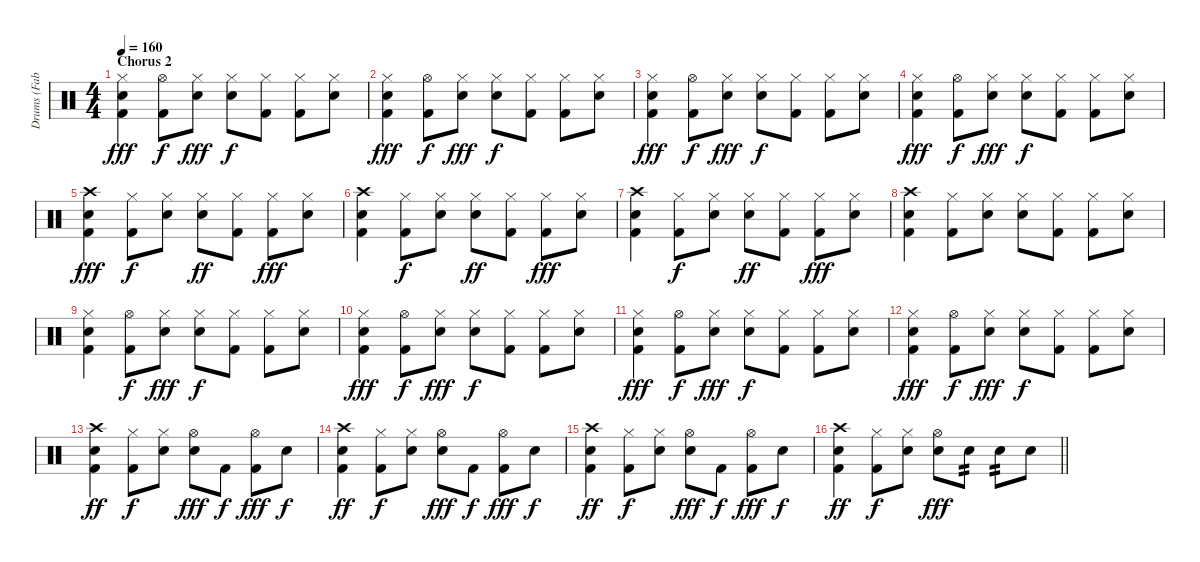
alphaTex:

\track ("Drums (Fabrizio Moretti)" "Drums (Fab") {instrument percussion}
\staff {score}
\articulation defaults
\ts (4 4)
\section ("" "Chorus 2")
\tempo 160
\clef neutral
\ks c
("Kick (hit) 2" "Electric Snare (hit)" "Hi-Hat (closed)").4{dy fff} ("Kick (hit) 2" "Hi-Hat (open)").8{dy f} ("Electric Snare (hit)" "Hi-Hat (closed)").8{dy fff} ("Electric Snare (hit)" "Hi-Hat (closed)").8{dy f} ("Kick (hit) 2" "Hi-Hat (closed)").8 ("Kick (hit) 2" "Hi-Hat (closed)").8 ("Electric Snare (hit)" "Hi-Hat (closed)").8 |
("Kick (hit) 2" "Electric Snare (hit)" "Hi-Hat (closed)").4{dy fff} ("Kick (hit) 2" "Hi-Hat (open)").8{dy f} ("Electric Snare (hit)" "Hi-Hat (closed)").8{dy fff} ("Electric Snare (hit)" "Hi-Hat (closed)").8{dy f} ("Kick (hit) 2" "Hi-Hat (closed)").8 ("Kick (hit) 2" "Hi-Hat (closed)").8 ("Electric Snare (hit)" "Hi-Hat (closed)").8 |
("Kick (hit) 2" "Electric Snare (hit)" "Hi-Hat (closed)").4{dy fff} ("Kick (hit) 2" "Hi-Hat (open)").8{dy f} ("Electric Snare (hit)" "Hi-Hat (closed)").8{dy fff} ("Electric Snare (hit)" "Hi-Hat (closed)").8{dy f} ("Kick (hit) 2" "Hi-Hat (closed)").8 ("Kick (hit) 2" "Hi-Hat (closed)").8 ("Electric Snare (hit)" "Hi-Hat (closed)").8 |
("Kick (hit) 2" "Electric Snare (hit)" "Hi-Hat (closed)").4{dy fff} ("Kick (hit) 2" "Hi-Hat (open)").8{dy f} ("Electric Snare (hit)" "Hi-Hat (closed)").8{dy fff} ("Electric Snare (hit)" "Hi-Hat (closed)").8{dy f} ("Kick (hit) 2" "Hi-Hat (closed)").8 ("Kick (hit) 2" "Hi-Hat (closed)").8 ("Electric Snare (hit)" "Hi-Hat (closed)").8 |
("Kick (hit) 2" "Electric Snare (hit)" "Crash high (hit)").4{dy fff} ("Kick (hit) 2" "Hi-Hat (closed)").8{dy f} ("Electric Snare (hit)" "Hi-Hat (closed)").8 ("Electric Snare (hit)" "Hi-Hat (closed)").8{dy ff} ("Kick (hit) 2" "Hi-Hat (closed)").8 ("Kick (hit) 2" "Hi-Hat (closed)").8{dy fff} ("Electric Snare (hit)" "Hi-Hat (closed)").8 |
("Kick (hit) 2" "Electric Snare (hit)" "Crash high (hit)").4 ("Kick (hit) 2" "Hi-Hat (closed)").8{dy f} ("Electric Snare (hit)" "Hi-Hat (closed)").8 ("Electric Snare (hit)" "Hi-Hat (closed)").8{dy ff} ("Kick (hit) 2" "Hi-Hat (closed)").8 ("Kick (hit) 2" "Hi-Hat (closed)").8{dy fff} ("Electric Snare (hit)" "Hi-Hat (closed)").8 |
("Kick (hit) 2" "Electric Snare (hit)" "Crash high (hit)").4 ("Kick (hit) 2" "Hi-Hat (closed)").8{dy f} ("Electric Snare (hit)" "Hi-Hat (closed)").8 ("Electric Snare (hit)" "Hi-Hat (closed)").8{dy ff} ("Kick (hit) 2" "Hi-Hat (closed)").8 ("Kick (hit) 2" "Hi-Hat (closed)").8{dy fff} ("Electric Snare (hit)" "Hi-Hat (closed)").8 |
("Kick (hit) 2" "Electric Snare (hit)" "Crash high (hit)").4 ("Kick (hit) 2" "Hi-Hat (closed)").8 ("Electric Snare (hit)" "Hi-Hat (closed)").8 ("Electric Snare (hit)" "Hi-Hat (closed)").8 ("Kick (hit) 2" "Hi-Hat (closed)").8 ("Kick (hit) 2" "Hi-Hat (closed)").8 ("Electric Snare (hit)" "Hi-Hat (closed)").8 |
("Kick (hit) 2" "Electric Snare (hit)" "Hi-Hat (closed)").4 ("Kick (hit) 2" "Hi-Hat (open)").8{dy f} ("Electric Snare (hit)" "Hi-Hat (closed)").8{dy fff} ("Electric Snare (hit)" "Hi-Hat (closed)").8{dy f} ("Kick (hit) 2" "Hi-Hat (closed)").8 ("Kick (hit) 2" "Hi-Hat (closed)").8 ("Electric Snare (hit)" "Hi-Hat (closed)").8 |
("Kick (hit) 2" "Electric Snare (hit)" "Hi-Hat (closed)").4{dy fff} ("Kick (hit) 2" "Hi-Hat (open)").8{dy f} ("Electric Snare (hit)" "Hi-Hat (closed)").8{dy fff} ("Electric Snare (hit)" "Hi-Hat (closed)").8{dy f} ("Kick (hit) 2" "Hi-Hat (closed)").8 ("Kick (hit) 2" "Hi-Hat (closed)").8 ("Electric Snare (hit)" "Hi-Hat (closed)").8 |
("Kick (hit) 2" "Electric Snare (hit)" "Hi-Hat (closed)").4{dy fff} ("Kick (hit) 2" "Hi-Hat (open)").8{dy f} ("Electric Snare (hit)" "Hi-Hat (closed)").8{dy fff} ("Electric Snare (hit)" "Hi-Hat (closed)").8{dy f} ("Kick (hit) 2" "Hi-Hat (closed)").8 ("Kick (hit) 2" "Hi-Hat (closed)").8 ("Electric Snare (hit)" "Hi-Hat (closed)").8 |
("Kick (hit) 2" "Electric Snare (hit)" "Hi-Hat (closed)").4{dy fff} ("Kick (hit) 2" "Hi-Hat (open)").8{dy f} ("Electric Snare (hit)" "Hi-Hat (closed)").8{dy fff} ("Electric Snare (hit)" "Hi-Hat (closed)").8{dy f} ("Kick (hit) 2" "Hi-Hat (closed)").8 ("Kick (hit) 2" "Hi-Hat (closed)").8 ("Electric Snare (hit)" "Hi-Hat (closed)").8 |
("Kick (hit) 2" "Electric Snare (hit)" "Crash high (hit)").4{dy ff} ("Kick (hit) 2" "Hi-Hat (closed)").8{dy f} ("Electric Snare (hit)" "Hi-Hat (closed)").8 ("Electric Snare (hit)" "Hi-Hat (open)").8{dy fff} "Kick (hit) 2".8{dy f} ("Kick (hit) 2" "Hi-Hat (open)").8{dy fff} "Electric Snare (hit)".8{dy f} |
("Kick (hit) 2" "Electric Snare (hit)" "Crash high (hit)").4{dy ff} ("Kick (hit) 2" "Hi-Hat (closed)").8{dy f} ("Electric Snare (hit)" "Hi-Hat (closed)").8 ("Electric Snare (hit)" "Hi-Hat (open)").8{dy fff} "Kick (hit) 2".8{dy f} ("Kick (hit) 2" "Hi-Hat (open)").8{dy fff} "Electric Snare (hit)".8{dy f} |
("Kick (hit) 2" "Electric Snare (hit)" "Crash high (hit)").4{dy ff} ("Kick (hit) 2" "Hi-Hat (closed)").8{dy f} ("Electric Snare (hit)" "Hi-Hat (closed)").8 ("Electric Snare (hit)" "Hi-Hat (open)").8{dy fff} "Kick (hit) 2".8{dy f} ("Kick (hit) 2" "Hi-Hat (open)").8{dy fff} "Electric Snare (hit)".8{dy f} |
\barLineRight lightlight
("Kick (hit) 2" "Electric Snare (hit)" "Crash high (hit)").4{dy ff} ("Kick (hit) 2" "Hi-Hat (closed)").8{dy f} ("Electric Snare (hit)" "Hi-Hat (closed)").8 ("Electric Snare (hit)" "Hi-Hat (open)").8{dy fff} "Electric Snare (hit)".8{tp 2} "Electric Snare (hit)".8{tp 2} "Electric Snare (hit)".8
